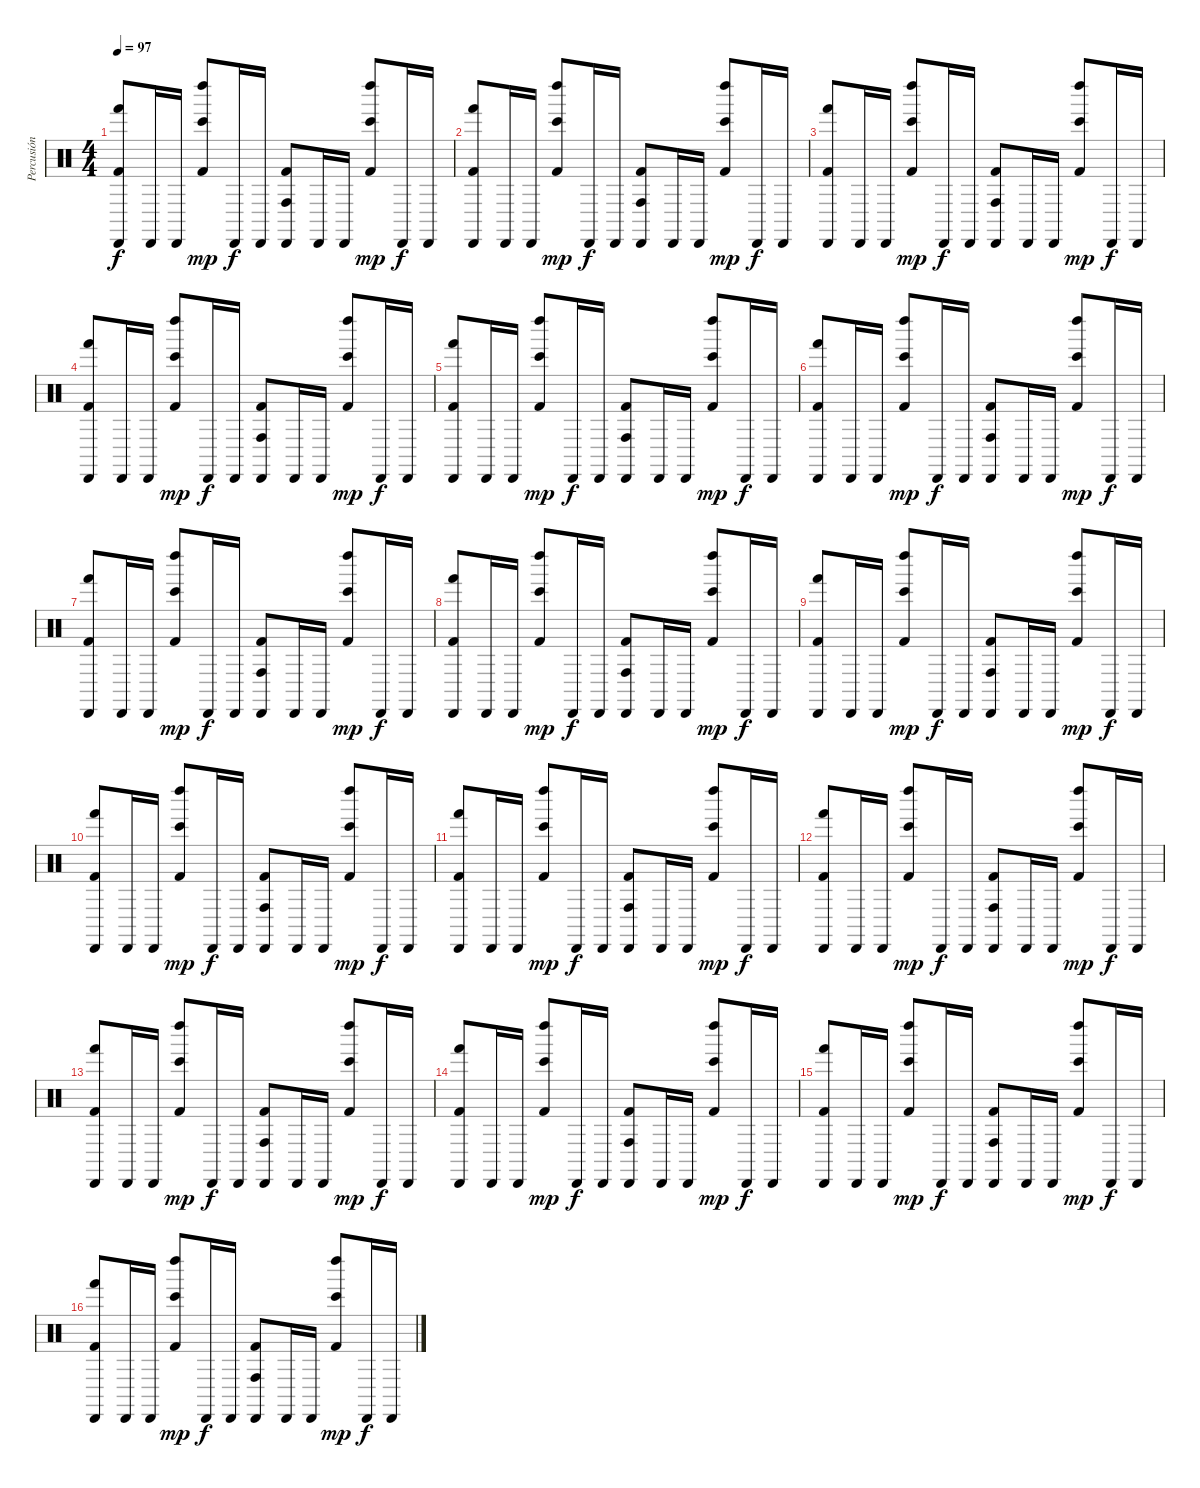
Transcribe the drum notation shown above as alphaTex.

\track ("Percusión" "Percusión") {instrument percussion}
\staff {score}
\articulation defaults
\ts (4 4)
\tempo 97
\clef neutral
\ks c
("Hand (hit)" "Cabasa (hit)" "Kick (hit) 2").8{dy f} "Cabasa (hit)".16 "Cabasa (hit)".16 ("Bongo High (hit)" "Kick (hit) 2" "Left Maraca (hit)").8{dy mp} "Cabasa (hit)".16{dy f} "Cabasa (hit)".16 ("Conga high (hit)" "Cabasa (hit)" "Kick (hit) 2").8 "Cabasa (hit)".16 "Cabasa (hit)".16 ("Bongo High (hit)" "Kick (hit) 2" "Left Maraca (hit)").8{dy mp} "Cabasa (hit)".16{dy f} "Cabasa (hit)".16 |
("Hand (hit)" "Cabasa (hit)" "Kick (hit) 2").8 "Cabasa (hit)".16 "Cabasa (hit)".16 ("Bongo High (hit)" "Kick (hit) 2" "Left Maraca (hit)").8{dy mp} "Cabasa (hit)".16{dy f} "Cabasa (hit)".16 ("Conga high (hit)" "Cabasa (hit)" "Kick (hit) 2").8 "Cabasa (hit)".16 "Cabasa (hit)".16 ("Bongo High (hit)" "Kick (hit) 2" "Left Maraca (hit)").8{dy mp} "Cabasa (hit)".16{dy f} "Cabasa (hit)".16 |
("Hand (hit)" "Cabasa (hit)" "Kick (hit) 2").8 "Cabasa (hit)".16 "Cabasa (hit)".16 ("Bongo High (hit)" "Kick (hit) 2" "Left Maraca (hit)").8{dy mp} "Cabasa (hit)".16{dy f} "Cabasa (hit)".16 ("Conga high (hit)" "Cabasa (hit)" "Kick (hit) 2").8 "Cabasa (hit)".16 "Cabasa (hit)".16 ("Bongo High (hit)" "Kick (hit) 2" "Left Maraca (hit)").8{dy mp} "Cabasa (hit)".16{dy f} "Cabasa (hit)".16 |
("Hand (hit)" "Cabasa (hit)" "Kick (hit) 2").8 "Cabasa (hit)".16 "Cabasa (hit)".16 ("Bongo High (hit)" "Kick (hit) 2" "Left Maraca (hit)").8{dy mp} "Cabasa (hit)".16{dy f} "Cabasa (hit)".16 ("Conga high (hit)" "Cabasa (hit)" "Kick (hit) 2").8 "Cabasa (hit)".16 "Cabasa (hit)".16 ("Bongo High (hit)" "Kick (hit) 2" "Left Maraca (hit)").8{dy mp} "Cabasa (hit)".16{dy f} "Cabasa (hit)".16 |
("Hand (hit)" "Cabasa (hit)" "Kick (hit) 2").8 "Cabasa (hit)".16 "Cabasa (hit)".16 ("Bongo High (hit)" "Kick (hit) 2" "Left Maraca (hit)").8{dy mp} "Cabasa (hit)".16{dy f} "Cabasa (hit)".16 ("Conga high (hit)" "Cabasa (hit)" "Kick (hit) 2").8 "Cabasa (hit)".16 "Cabasa (hit)".16 ("Bongo High (hit)" "Kick (hit) 2" "Left Maraca (hit)").8{dy mp} "Cabasa (hit)".16{dy f} "Cabasa (hit)".16 |
("Hand (hit)" "Cabasa (hit)" "Kick (hit) 2").8 "Cabasa (hit)".16 "Cabasa (hit)".16 ("Bongo High (hit)" "Kick (hit) 2" "Left Maraca (hit)").8{dy mp} "Cabasa (hit)".16{dy f} "Cabasa (hit)".16 ("Conga high (hit)" "Cabasa (hit)" "Kick (hit) 2").8 "Cabasa (hit)".16 "Cabasa (hit)".16 ("Bongo High (hit)" "Kick (hit) 2" "Left Maraca (hit)").8{dy mp} "Cabasa (hit)".16{dy f} "Cabasa (hit)".16 |
("Hand (hit)" "Cabasa (hit)" "Kick (hit) 2").8 "Cabasa (hit)".16 "Cabasa (hit)".16 ("Bongo High (hit)" "Kick (hit) 2" "Left Maraca (hit)").8{dy mp} "Cabasa (hit)".16{dy f} "Cabasa (hit)".16 ("Conga high (hit)" "Cabasa (hit)" "Kick (hit) 2").8 "Cabasa (hit)".16 "Cabasa (hit)".16 ("Bongo High (hit)" "Kick (hit) 2" "Left Maraca (hit)").8{dy mp} "Cabasa (hit)".16{dy f} "Cabasa (hit)".16 |
("Hand (hit)" "Cabasa (hit)" "Kick (hit) 2").8 "Cabasa (hit)".16 "Cabasa (hit)".16 ("Bongo High (hit)" "Kick (hit) 2" "Left Maraca (hit)").8{dy mp} "Cabasa (hit)".16{dy f} "Cabasa (hit)".16 ("Conga high (hit)" "Cabasa (hit)" "Kick (hit) 2").8 "Cabasa (hit)".16 "Cabasa (hit)".16 ("Bongo High (hit)" "Kick (hit) 2" "Left Maraca (hit)").8{dy mp} "Cabasa (hit)".16{dy f} "Cabasa (hit)".16 |
("Hand (hit)" "Cabasa (hit)" "Kick (hit) 2").8 "Cabasa (hit)".16 "Cabasa (hit)".16 ("Bongo High (hit)" "Kick (hit) 2" "Left Maraca (hit)").8{dy mp} "Cabasa (hit)".16{dy f} "Cabasa (hit)".16 ("Conga high (hit)" "Cabasa (hit)" "Kick (hit) 2").8 "Cabasa (hit)".16 "Cabasa (hit)".16 ("Bongo High (hit)" "Kick (hit) 2" "Left Maraca (hit)").8{dy mp} "Cabasa (hit)".16{dy f} "Cabasa (hit)".16 |
("Hand (hit)" "Cabasa (hit)" "Kick (hit) 2").8 "Cabasa (hit)".16 "Cabasa (hit)".16 ("Bongo High (hit)" "Kick (hit) 2" "Left Maraca (hit)").8{dy mp} "Cabasa (hit)".16{dy f} "Cabasa (hit)".16 ("Conga high (hit)" "Cabasa (hit)" "Kick (hit) 2").8 "Cabasa (hit)".16 "Cabasa (hit)".16 ("Bongo High (hit)" "Kick (hit) 2" "Left Maraca (hit)").8{dy mp} "Cabasa (hit)".16{dy f} "Cabasa (hit)".16 |
("Hand (hit)" "Cabasa (hit)" "Kick (hit) 2").8 "Cabasa (hit)".16 "Cabasa (hit)".16 ("Bongo High (hit)" "Kick (hit) 2" "Left Maraca (hit)").8{dy mp} "Cabasa (hit)".16{dy f} "Cabasa (hit)".16 ("Conga high (hit)" "Cabasa (hit)" "Kick (hit) 2").8 "Cabasa (hit)".16 "Cabasa (hit)".16 ("Bongo High (hit)" "Kick (hit) 2" "Left Maraca (hit)").8{dy mp} "Cabasa (hit)".16{dy f} "Cabasa (hit)".16 |
("Hand (hit)" "Cabasa (hit)" "Kick (hit) 2").8 "Cabasa (hit)".16 "Cabasa (hit)".16 ("Bongo High (hit)" "Kick (hit) 2" "Left Maraca (hit)").8{dy mp} "Cabasa (hit)".16{dy f} "Cabasa (hit)".16 ("Conga high (hit)" "Cabasa (hit)" "Kick (hit) 2").8 "Cabasa (hit)".16 "Cabasa (hit)".16 ("Bongo High (hit)" "Kick (hit) 2" "Left Maraca (hit)").8{dy mp} "Cabasa (hit)".16{dy f} "Cabasa (hit)".16 |
("Hand (hit)" "Cabasa (hit)" "Kick (hit) 2").8 "Cabasa (hit)".16 "Cabasa (hit)".16 ("Bongo High (hit)" "Kick (hit) 2" "Left Maraca (hit)").8{dy mp} "Cabasa (hit)".16{dy f} "Cabasa (hit)".16 ("Conga high (hit)" "Cabasa (hit)" "Kick (hit) 2").8 "Cabasa (hit)".16 "Cabasa (hit)".16 ("Bongo High (hit)" "Kick (hit) 2" "Left Maraca (hit)").8{dy mp} "Cabasa (hit)".16{dy f} "Cabasa (hit)".16 |
("Hand (hit)" "Cabasa (hit)" "Kick (hit) 2").8 "Cabasa (hit)".16 "Cabasa (hit)".16 ("Bongo High (hit)" "Kick (hit) 2" "Left Maraca (hit)").8{dy mp} "Cabasa (hit)".16{dy f} "Cabasa (hit)".16 ("Conga high (hit)" "Cabasa (hit)" "Kick (hit) 2").8 "Cabasa (hit)".16 "Cabasa (hit)".16 ("Bongo High (hit)" "Kick (hit) 2" "Left Maraca (hit)").8{dy mp} "Cabasa (hit)".16{dy f} "Cabasa (hit)".16 |
("Hand (hit)" "Cabasa (hit)" "Kick (hit) 2").8 "Cabasa (hit)".16 "Cabasa (hit)".16 ("Bongo High (hit)" "Kick (hit) 2" "Left Maraca (hit)").8{dy mp} "Cabasa (hit)".16{dy f} "Cabasa (hit)".16 ("Conga high (hit)" "Cabasa (hit)" "Kick (hit) 2").8 "Cabasa (hit)".16 "Cabasa (hit)".16 ("Bongo High (hit)" "Kick (hit) 2" "Left Maraca (hit)").8{dy mp} "Cabasa (hit)".16{dy f} "Cabasa (hit)".16 |
("Hand (hit)" "Cabasa (hit)" "Kick (hit) 2").8 "Cabasa (hit)".16 "Cabasa (hit)".16 ("Bongo High (hit)" "Kick (hit) 2" "Left Maraca (hit)").8{dy mp} "Cabasa (hit)".16{dy f} "Cabasa (hit)".16 ("Conga high (hit)" "Cabasa (hit)" "Kick (hit) 2").8 "Cabasa (hit)".16 "Cabasa (hit)".16 ("Bongo High (hit)" "Kick (hit) 2" "Left Maraca (hit)").8{dy mp} "Cabasa (hit)".16{dy f} "Cabasa (hit)".16
